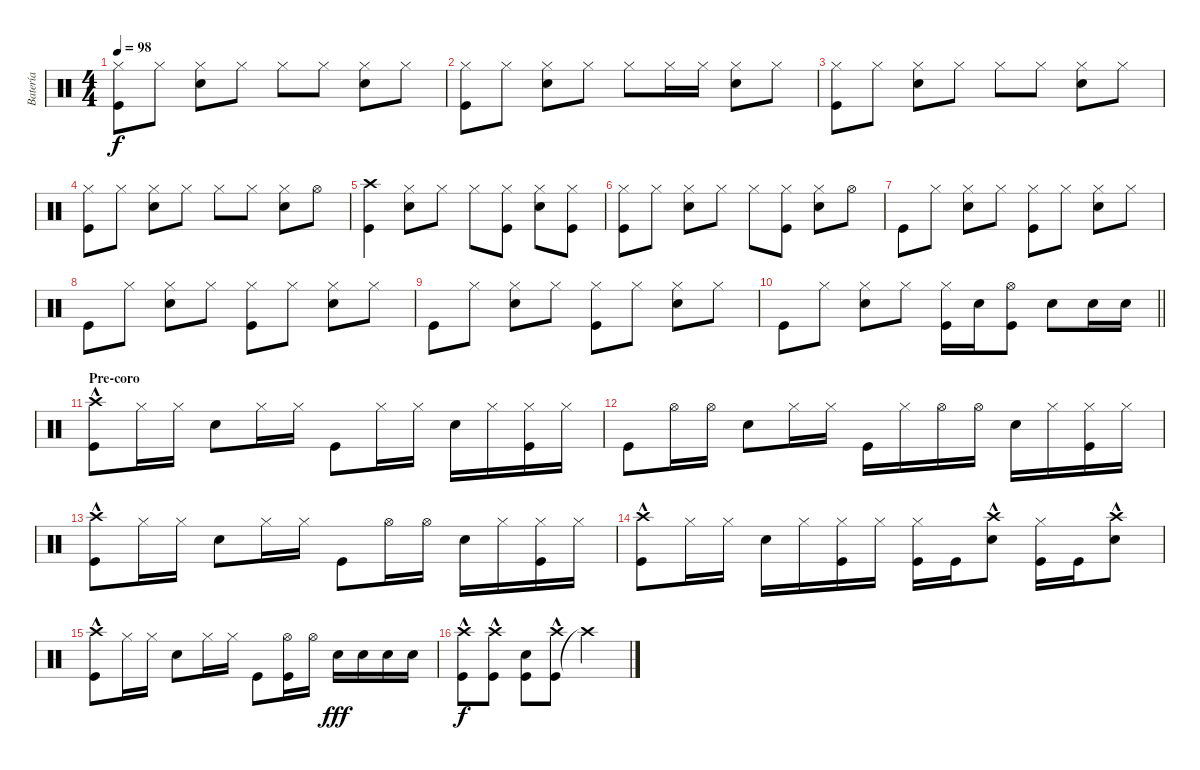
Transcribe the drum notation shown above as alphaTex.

\track ("Batería" "Batería") {instrument percussion}
\staff {score}
\articulation defaults
\ts (4 4)
\tempo 98
\clef neutral
\ks aminor
("Hi-Hat (closed)" "Kick (hit)").8{dy f} "Hi-Hat (closed)".8 ("Hi-Hat (closed)" "Snare (hit) 2").8 "Hi-Hat (closed)".8 "Hi-Hat (closed)".8 "Hi-Hat (closed)".8 ("Hi-Hat (closed)" "Snare (hit) 2").8 "Hi-Hat (closed)".8 |
("Hi-Hat (closed)" "Kick (hit)").8 "Hi-Hat (closed)".8 ("Hi-Hat (closed)" "Snare (hit) 2").8 "Hi-Hat (closed)".8 "Hi-Hat (closed)".8 "Hi-Hat (closed)".16 "Hi-Hat (closed)".16 ("Hi-Hat (closed)" "Snare (hit) 2").8 "Hi-Hat (closed)".8 |
("Hi-Hat (closed)" "Kick (hit)").8 "Hi-Hat (closed)".8 ("Hi-Hat (closed)" "Snare (hit) 2").8 "Hi-Hat (closed)".8 "Hi-Hat (closed)".8 "Hi-Hat (closed)".8 ("Hi-Hat (closed)" "Snare (hit) 2").8 "Hi-Hat (closed)".8 |
("Hi-Hat (closed)" "Kick (hit)").8 "Hi-Hat (closed)".8 ("Hi-Hat (closed)" "Snare (hit) 2").8 "Hi-Hat (closed)".8 "Hi-Hat (closed)".8 "Hi-Hat (closed)".8 ("Hi-Hat (closed)" "Snare (hit) 2").8 "Hi-Hat (open)".8 |
("Kick (hit)" "Crash high (hit)").4 ("Hi-Hat (closed)" "Snare (hit) 2").8 "Hi-Hat (closed)".8 "Hi-Hat (closed)".8 ("Hi-Hat (closed)" "Kick (hit)").8 ("Hi-Hat (closed)" "Snare (hit) 2").8 ("Hi-Hat (closed)" "Kick (hit)").8 |
("Hi-Hat (closed)" "Kick (hit)").8 "Hi-Hat (closed)".8 ("Hi-Hat (closed)" "Snare (hit) 2").8 "Hi-Hat (closed)".8 "Hi-Hat (closed)".8 ("Hi-Hat (closed)" "Kick (hit)").8 ("Hi-Hat (closed)" "Snare (hit) 2").8 "Hi-Hat (open)".8 |
"Kick (hit)".8 "Hi-Hat (closed)".8 ("Hi-Hat (closed)" "Snare (hit) 2").8 "Hi-Hat (closed)".8 ("Hi-Hat (closed)" "Kick (hit)").8 "Hi-Hat (closed)".8 ("Hi-Hat (closed)" "Snare (hit) 2").8 "Hi-Hat (closed)".8 |
"Kick (hit)".8 "Hi-Hat (closed)".8 ("Hi-Hat (closed)" "Snare (hit) 2").8 "Hi-Hat (closed)".8 ("Hi-Hat (closed)" "Kick (hit)").8 "Hi-Hat (closed)".8 ("Hi-Hat (closed)" "Snare (hit) 2").8 "Hi-Hat (closed)".8 |
"Kick (hit)".8 "Hi-Hat (closed)".8 ("Hi-Hat (closed)" "Snare (hit) 2").8 "Hi-Hat (closed)".8 ("Hi-Hat (closed)" "Kick (hit)").8 "Hi-Hat (closed)".8 ("Hi-Hat (closed)" "Snare (hit) 2").8 "Hi-Hat (closed)".8 |
\barLineRight lightlight "Kick (hit)".8 "Hi-Hat (closed)".8
("Hi-Hat (closed)" "Snare (hit) 2").8 "Hi-Hat (closed)".8 ("Hi-Hat (closed)" "Kick (hit)").16 "Snare (hit) 2".16 ("Hi-Hat (open)" "Kick (hit)").8 "Snare (hit) 2".8 "Snare (hit) 2".16 "Snare (hit) 2".16 |
\section ("" "Pre-coro")
("Crash high (hit)"{hac} "Kick (hit)").8 "Hi-Hat (closed)".16 "Hi-Hat (closed)".16 "Snare (hit) 2".8 "Hi-Hat (closed)".16 "Hi-Hat (closed)".16 "Kick (hit)".8 "Hi-Hat (closed)".16 "Hi-Hat (closed)".16 "Snare (hit) 2".16 "Hi-Hat (closed)".16 ("Hi-Hat (closed)" "Kick (hit)").16 "Hi-Hat (closed)".16 |
"Kick (hit)".8 "Hi-Hat (open)".16 "Hi-Hat (open)".16 "Snare (hit) 2".8 "Hi-Hat (closed)".16 "Hi-Hat (closed)".16 "Kick (hit)".16 "Hi-Hat (closed)".16 "Hi-Hat (open)".16 "Hi-Hat (open)".16 "Snare (hit) 2".16 "Hi-Hat (closed)".16 ("Hi-Hat (closed)" "Kick (hit)").16 "Hi-Hat (closed)".16 |
("Crash high (hit)"{hac} "Kick (hit)").8 "Hi-Hat (closed)".16 "Hi-Hat (closed)".16 "Snare (hit) 2".8 "Hi-Hat (closed)".16 "Hi-Hat (closed)".16 "Kick (hit)".8 "Hi-Hat (open)".16 "Hi-Hat (open)".16 "Snare (hit) 2".16 "Hi-Hat (closed)".16 ("Hi-Hat (closed)" "Kick (hit)").16 "Hi-Hat (closed)".16 |
("Kick (hit)" "Crash high (hit)"{hac}).8 "Hi-Hat (closed)".16 "Hi-Hat (closed)".16 "Snare (hit) 2".16 "Hi-Hat (closed)".16 ("Hi-Hat (closed)" "Kick (hit)").16 "Hi-Hat (closed)".16 ("Kick (hit)" "Hi-Hat (closed)").16 "Kick (hit)".16 ("Snare (hit) 2" "Crash high (hit)"{hac}).8 ("Kick (hit)" "Hi-Hat (closed)").16 "Kick (hit)".16 ("Snare (hit) 2" "Crash high (hit)"{hac}).8 |
("Kick (hit)" "Crash high (hit)"{hac}).8 "Hi-Hat (closed)".16 "Hi-Hat (closed)".16 "Snare (hit) 2".8 "Hi-Hat (closed)".16 "Hi-Hat (closed)".16 "Kick (hit)".8 ("Kick (hit)" "Hi-Hat (open)").16 "Hi-Hat (open)".16 "Snare (hit) 2".16{dy fff} "Snare (hit) 2".16 "Snare (hit) 2".16 "Snare (hit) 2".16 |
("Kick (hit)" "Crash high (hit)"{hac}).8{dy f} ("Kick (hit)" "Crash high (hit)"{hac}).8 ("Kick (hit)" "Snare (hit) 2").8 ("Kick (hit)" "Crash high (hit)"{hac}).8 "Crash high (hit)"{t}.2
